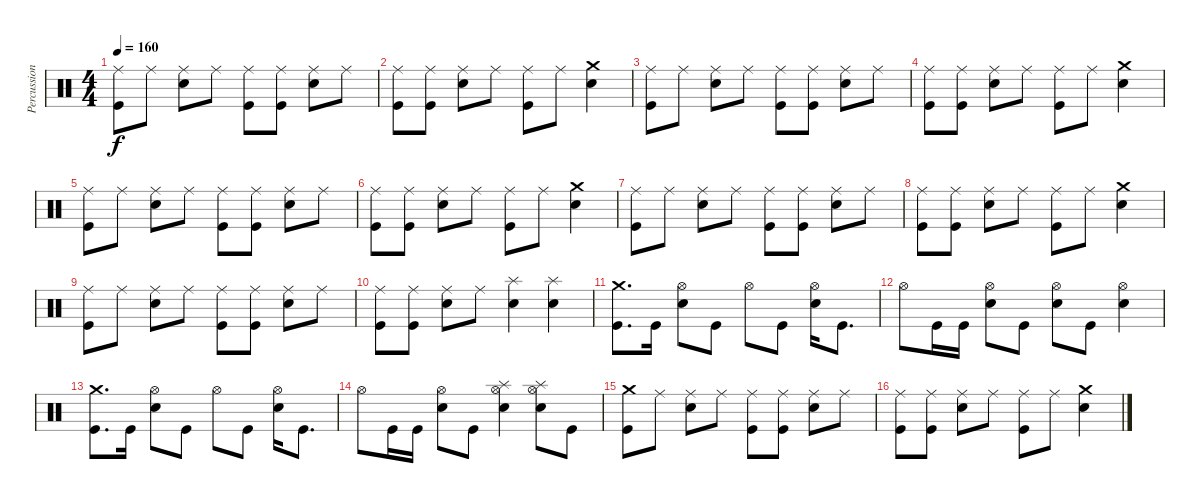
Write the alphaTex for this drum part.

\track ("Percussion" "Percussion") {instrument percussion}
\staff {score}
\articulation defaults
\ts (4 4)
\tempo 160
\clef neutral
\ks c
("Kick (hit)" "Ride (middle)").8{dy f} "Ride (middle)".8 ("Snare (hit) 2" "Ride (middle)").8 "Ride (middle)".8 ("Kick (hit)" "Ride (middle)").8 ("Kick (hit)" "Ride (middle)").8 ("Snare (hit) 2" "Ride (middle)").8 "Ride (middle)".8 |
("Kick (hit)" "Ride (middle)").8 ("Kick (hit)" "Ride (middle)").8 ("Snare (hit) 2" "Ride (middle)").8 "Ride (middle)".8 ("Kick (hit)" "Ride (middle)").8 "Ride (middle)".8 ("Crash medium (hit)" "Snare (hit) 2").4 |
("Kick (hit)" "Ride (middle)").8 "Ride (middle)".8 ("Snare (hit) 2" "Ride (middle)").8 "Ride (middle)".8 ("Kick (hit)" "Ride (middle)").8 ("Kick (hit)" "Ride (middle)").8 ("Snare (hit) 2" "Ride (middle)").8 "Ride (middle)".8 |
("Kick (hit)" "Ride (middle)").8 ("Kick (hit)" "Ride (middle)").8 ("Snare (hit) 2" "Ride (middle)").8 "Ride (middle)".8 ("Kick (hit)" "Ride (middle)").8 "Ride (middle)".8 ("Crash medium (hit)" "Snare (hit) 2").4 |
("Kick (hit)" "Ride (middle)").8 "Ride (middle)".8 ("Snare (hit) 2" "Ride (middle)").8 "Ride (middle)".8 ("Kick (hit)" "Ride (middle)").8 ("Kick (hit)" "Ride (middle)").8 ("Snare (hit) 2" "Ride (middle)").8 "Ride (middle)".8 |
("Kick (hit)" "Ride (middle)").8 ("Kick (hit)" "Ride (middle)").8 ("Snare (hit) 2" "Ride (middle)").8 "Ride (middle)".8 ("Kick (hit)" "Ride (middle)").8 "Ride (middle)".8 ("Crash medium (hit)" "Snare (hit) 2").4 |
("Kick (hit)" "Ride (middle)").8 "Ride (middle)".8 ("Snare (hit) 2" "Ride (middle)").8 "Ride (middle)".8 ("Kick (hit)" "Ride (middle)").8 ("Kick (hit)" "Ride (middle)").8 ("Snare (hit) 2" "Ride (middle)").8 "Ride (middle)".8 |
("Kick (hit)" "Ride (middle)").8 ("Kick (hit)" "Ride (middle)").8 ("Snare (hit) 2" "Ride (middle)").8 "Ride (middle)".8 ("Kick (hit)" "Ride (middle)").8 "Ride (middle)".8 ("Crash medium (hit)" "Snare (hit) 2").4 |
("Kick (hit)" "Ride (middle)").8 "Ride (middle)".8 ("Snare (hit) 2" "Ride (middle)").8 "Ride (middle)".8 ("Kick (hit)" "Ride (middle)").8 ("Kick (hit)" "Ride (middle)").8 ("Snare (hit) 2" "Ride (middle)").8 "Ride (middle)".8 |
("Kick (hit)" "Ride (middle)").8 ("Kick (hit)" "Ride (middle)").8 ("Snare (hit) 2" "Ride (middle)").8 "Ride (middle)".8 ("Splash (hit)" "Snare (hit) 2").4 ("Splash (hit)" "Snare (hit) 2").4 |
("Crash medium (hit)" "Kick (hit)").8{d} "Kick (hit)".16 ("Snare (hit) 2" "Hi-Hat (open)").8 "Kick (hit)".8 "Hi-Hat (open)".8 "Kick (hit)".8 ("Snare (hit) 2" "Hi-Hat (open)").16 "Kick (hit)".8{d} |
"Hi-Hat (open)".8 "Kick (hit)".16 "Kick (hit)".16 ("Snare (hit) 2" "Hi-Hat (open)").8 "Kick (hit)".8 ("Snare (hit) 2" "Hi-Hat (open)").8 "Kick (hit)".8 ("Snare (hit) 2" "Hi-Hat (open)").4 |
("Crash medium (hit)" "Kick (hit)").8{d} "Kick (hit)".16 ("Snare (hit) 2" "Hi-Hat (open)").8 "Kick (hit)".8 "Hi-Hat (open)".8 "Kick (hit)".8 ("Snare (hit) 2" "Hi-Hat (open)").16 "Kick (hit)".8{d} |
"Hi-Hat (open)".8 "Kick (hit)".16 "Kick (hit)".16 ("Snare (hit) 2" "Hi-Hat (open)").8 "Kick (hit)".8 ("Splash (hit)" "Snare (hit) 2" "Hi-Hat (open)").4 ("Splash (hit)" "Snare (hit) 2" "Hi-Hat (open)").8 "Kick (hit)".8 |
("Crash medium (hit)" "Kick (hit)").8 "Ride (middle)".8 ("Snare (hit) 2" "Ride (middle)").8 "Ride (middle)".8 ("Kick (hit)" "Ride (middle)").8 ("Kick (hit)" "Ride (middle)").8 ("Snare (hit) 2" "Ride (middle)").8 "Ride (middle)".8 |
("Kick (hit)" "Ride (middle)").8 ("Kick (hit)" "Ride (middle)").8 ("Snare (hit) 2" "Ride (middle)").8 "Ride (middle)".8 ("Kick (hit)" "Ride (middle)").8 "Ride (middle)".8 ("Crash medium (hit)" "Snare (hit) 2").4
